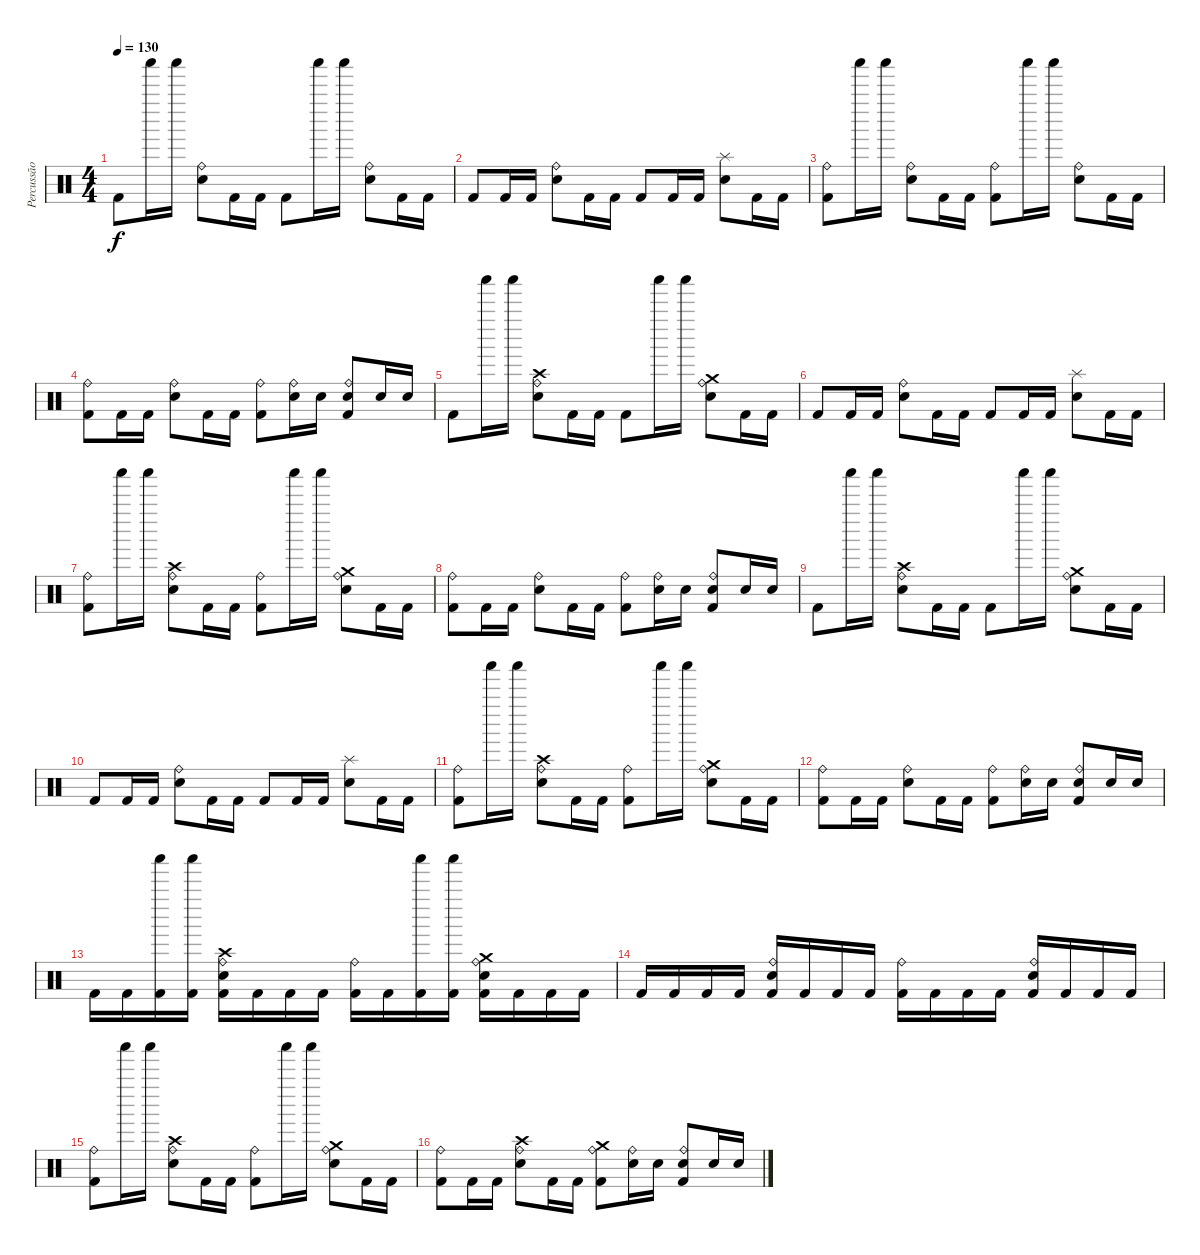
\track ("Percussão" "Percussão") {instrument percussion}
\staff {score}
\articulation defaults
\ts (4 4)
\tempo 130
\clef neutral
\ks c "Kick (hit) 2".8{dy f} "Shaker (hit)".16 "Shaker (hit)".16
("Ride (bell)" "Electric Snare (hit)").8 "Kick (hit) 2".16 "Kick (hit) 2".16 "Kick (hit) 2".8 "Shaker (hit)".16 "Shaker (hit)".16 ("Ride (bell)" "Electric Snare (hit)").8 "Kick (hit) 2".16 "Kick (hit) 2".16 |
"Kick (hit) 2".8 "Kick (hit) 2".16 "Kick (hit) 2".16 ("Ride (bell)" "Electric Snare (hit)").8 "Kick (hit) 2".16 "Kick (hit) 2".16 "Kick (hit) 2".8 "Kick (hit) 2".16 "Kick (hit) 2".16 ("Splash (hit)" "Electric Snare (hit)").8 "Kick (hit) 2".16 "Kick (hit) 2".16 |
("Ride (bell)" "Kick (hit) 2").8 "Shaker (hit)".16 "Shaker (hit)".16 ("Ride (bell)" "Electric Snare (hit)").8 "Kick (hit) 2".16 "Kick (hit) 2".16 ("Ride (bell)" "Kick (hit) 2").8 "Shaker (hit)".16 "Shaker (hit)".16 ("Ride (bell)" "Electric Snare (hit)").8 "Kick (hit) 2".16 "Kick (hit) 2".16 |
("Ride (bell)" "Kick (hit) 2").8 "Kick (hit) 2".16 "Kick (hit) 2".16 ("Ride (bell)" "Electric Snare (hit)").8 "Kick (hit) 2".16 "Kick (hit) 2".16 ("Ride (bell)" "Kick (hit) 2").8 ("Ride (bell)" "Electric Snare (hit)").16 "Electric Snare (hit)".16 ("Ride (bell)" "Electric Snare (hit)" "Kick (hit) 2").8 "Electric Snare (hit)".16 "Electric Snare (hit)".16 |
"Kick (hit) 2".8 "Shaker (hit)".16 "Shaker (hit)".16 ("Crash high (hit)" "Ride (bell)" "Electric Snare (hit)").8 "Kick (hit) 2".16 "Kick (hit) 2".16 "Kick (hit) 2".8 "Shaker (hit)".16 "Shaker (hit)".16 ("Crash medium (hit)" "Ride (bell)" "Electric Snare (hit)").8 "Kick (hit) 2".16 "Kick (hit) 2".16 |
"Kick (hit) 2".8 "Kick (hit) 2".16 "Kick (hit) 2".16 ("Ride (bell)" "Electric Snare (hit)").8 "Kick (hit) 2".16 "Kick (hit) 2".16 "Kick (hit) 2".8 "Kick (hit) 2".16 "Kick (hit) 2".16 ("Splash (hit)" "Electric Snare (hit)").8 "Kick (hit) 2".16 "Kick (hit) 2".16 |
("Ride (bell)" "Kick (hit) 2").8 "Shaker (hit)".16 "Shaker (hit)".16 ("Crash high (hit)" "Ride (bell)" "Electric Snare (hit)").8 "Kick (hit) 2".16 "Kick (hit) 2".16 ("Ride (bell)" "Kick (hit) 2").8 "Shaker (hit)".16 "Shaker (hit)".16 ("Crash medium (hit)" "Ride (bell)" "Electric Snare (hit)").8 "Kick (hit) 2".16 "Kick (hit) 2".16 |
("Ride (bell)" "Kick (hit) 2").8 "Kick (hit) 2".16 "Kick (hit) 2".16 ("Ride (bell)" "Electric Snare (hit)").8 "Kick (hit) 2".16 "Kick (hit) 2".16 ("Ride (bell)" "Kick (hit) 2").8 ("Ride (bell)" "Electric Snare (hit)").16 "Electric Snare (hit)".16 ("Ride (bell)" "Electric Snare (hit)" "Kick (hit) 2").8 "Electric Snare (hit)".16 "Electric Snare (hit)".16 |
"Kick (hit) 2".8 "Shaker (hit)".16 "Shaker (hit)".16 ("Crash high (hit)" "Ride (bell)" "Electric Snare (hit)").8 "Kick (hit) 2".16 "Kick (hit) 2".16 "Kick (hit) 2".8 "Shaker (hit)".16 "Shaker (hit)".16 ("Crash medium (hit)" "Ride (bell)" "Electric Snare (hit)").8 "Kick (hit) 2".16 "Kick (hit) 2".16 |
"Kick (hit) 2".8 "Kick (hit) 2".16 "Kick (hit) 2".16 ("Ride (bell)" "Electric Snare (hit)").8 "Kick (hit) 2".16 "Kick (hit) 2".16 "Kick (hit) 2".8 "Kick (hit) 2".16 "Kick (hit) 2".16 ("Splash (hit)" "Electric Snare (hit)").8 "Kick (hit) 2".16 "Kick (hit) 2".16 |
("Ride (bell)" "Kick (hit) 2").8 "Shaker (hit)".16 "Shaker (hit)".16 ("Crash high (hit)" "Ride (bell)" "Electric Snare (hit)").8 "Kick (hit) 2".16 "Kick (hit) 2".16 ("Ride (bell)" "Kick (hit) 2").8 "Shaker (hit)".16 "Shaker (hit)".16 ("Crash medium (hit)" "Ride (bell)" "Electric Snare (hit)").8 "Kick (hit) 2".16 "Kick (hit) 2".16 |
("Ride (bell)" "Kick (hit) 2").8 "Kick (hit) 2".16 "Kick (hit) 2".16 ("Ride (bell)" "Electric Snare (hit)").8 "Kick (hit) 2".16 "Kick (hit) 2".16 ("Ride (bell)" "Kick (hit) 2").8 ("Ride (bell)" "Electric Snare (hit)").16 "Electric Snare (hit)".16 ("Ride (bell)" "Electric Snare (hit)" "Kick (hit) 2").8 "Electric Snare (hit)".16 "Electric Snare (hit)".16 |
"Kick (hit) 2".16 "Kick (hit) 2".16 ("Shaker (hit)" "Kick (hit) 2").16 ("Shaker (hit)" "Kick (hit) 2").16 ("Crash high (hit)" "Ride (bell)" "Electric Snare (hit)" "Kick (hit) 2").16 "Kick (hit) 2".16 "Kick (hit) 2".16 "Kick (hit) 2".16 ("Ride (bell)" "Kick (hit) 2").16 "Kick (hit) 2".16 ("Shaker (hit)" "Kick (hit) 2").16 ("Shaker (hit)" "Kick (hit) 2").16 ("Crash medium (hit)" "Ride (bell)" "Electric Snare (hit)" "Kick (hit) 2").16 "Kick (hit) 2".16 "Kick (hit) 2".16 "Kick (hit) 2".16 |
"Kick (hit) 2".16 "Kick (hit) 2".16 "Kick (hit) 2".16 "Kick (hit) 2".16 ("Ride (bell)" "Electric Snare (hit)" "Kick (hit) 2").16 "Kick (hit) 2".16 "Kick (hit) 2".16 "Kick (hit) 2".16 ("Ride (bell)" "Kick (hit) 2").16 "Kick (hit) 2".16 "Kick (hit) 2".16 "Kick (hit) 2".16 ("Ride (bell)" "Electric Snare (hit)" "Kick (hit) 2").16 "Kick (hit) 2".16 "Kick (hit) 2".16 "Kick (hit) 2".16 |
("Ride (bell)" "Kick (hit) 2").8 "Shaker (hit)".16 "Shaker (hit)".16 ("Crash high (hit)" "Ride (bell)" "Electric Snare (hit)").8 "Kick (hit) 2".16 "Kick (hit) 2".16 ("Ride (bell)" "Kick (hit) 2").8 "Shaker (hit)".16 "Shaker (hit)".16 ("Crash medium (hit)" "Ride (bell)" "Electric Snare (hit)").8 "Kick (hit) 2".16 "Kick (hit) 2".16 |
("Ride (bell)" "Kick (hit) 2").8 "Kick (hit) 2".16 "Kick (hit) 2".16 ("Crash high (hit)" "Ride (bell)" "Electric Snare (hit)").8 "Kick (hit) 2".16 "Kick (hit) 2".16 ("Crash medium (hit)" "Ride (bell)" "Kick (hit) 2").8 ("Ride (bell)" "Electric Snare (hit)").16 "Electric Snare (hit)".16 ("Ride (bell)" "Electric Snare (hit)" "Kick (hit) 2").8 "Electric Snare (hit)".16 "Electric Snare (hit)".16
